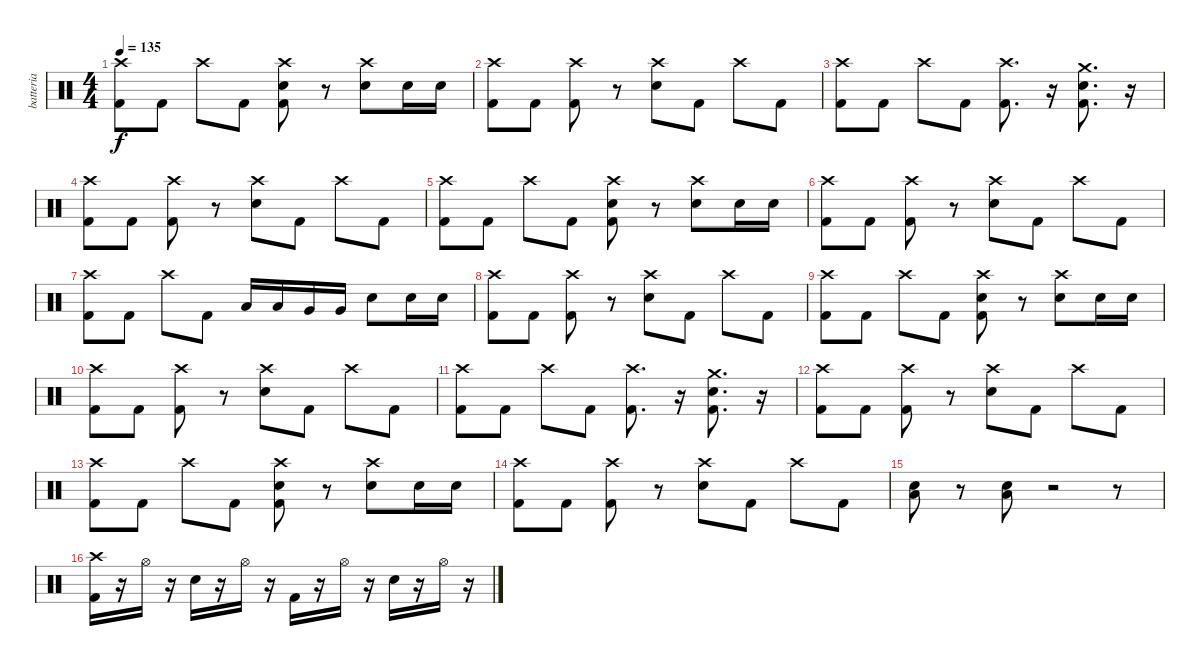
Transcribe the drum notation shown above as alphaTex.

\track ("batteria" "batteria") {instrument percussion}
\staff {score}
\articulation defaults
\ts (4 4)
\tempo 135
\clef neutral
\ks c
("Crash high (hit)" "Kick (hit) 2").8{dy f} "Kick (hit) 2".8 "Crash high (hit)".8 "Kick (hit) 2".8 ("Crash high (hit)" "Electric Snare (hit)" "Kick (hit) 2").8 r.8 ("Crash high (hit)" "Electric Snare (hit)").8 "Electric Snare (hit)".16 "Electric Snare (hit)".16 |
("Crash high (hit)" "Kick (hit) 2").8 "Kick (hit) 2".8 ("Crash high (hit)" "Kick (hit) 2").8 r.8 ("Crash high (hit)" "Electric Snare (hit)").8 "Kick (hit) 2".8 "Crash high (hit)".8 "Kick (hit) 2".8 |
("Crash high (hit)" "Kick (hit) 2").8 "Kick (hit) 2".8 "Crash high (hit)".8 "Kick (hit) 2".8 ("Crash high (hit)" "Kick (hit) 2").8{d} r.16 ("Crash medium (hit)" "Electric Snare (hit)" "Kick (hit) 2").8{d} r.16 |
("Crash high (hit)" "Kick (hit) 2").8 "Kick (hit) 2".8 ("Crash high (hit)" "Kick (hit) 2").8 r.8 ("Crash high (hit)" "Electric Snare (hit)").8 "Kick (hit) 2".8 "Crash high (hit)".8 "Kick (hit) 2".8 |
("Crash high (hit)" "Kick (hit) 2").8 "Kick (hit) 2".8 "Crash high (hit)".8 "Kick (hit) 2".8 ("Crash high (hit)" "Electric Snare (hit)" "Kick (hit) 2").8 r.8 ("Crash high (hit)" "Electric Snare (hit)").8 "Electric Snare (hit)".16 "Electric Snare (hit)".16 |
("Crash high (hit)" "Kick (hit) 2").8 "Kick (hit) 2".8 ("Crash high (hit)" "Kick (hit) 2").8 r.8 ("Crash high (hit)" "Electric Snare (hit)").8 "Kick (hit) 2".8 "Crash high (hit)".8 "Kick (hit) 2".8 |
("Crash high (hit)" "Kick (hit) 2").8 "Kick (hit) 2".8 "Crash high (hit)".8 "Kick (hit) 2".8 "Low Tom (hit)".16 "Low Tom (hit)".16 "Very Low Tom (hit)".16 "Very Low Tom (hit)".16 "Electric Snare (hit)".8 "Electric Snare (hit)".16 "Electric Snare (hit)".16 |
("Crash high (hit)" "Kick (hit) 2").8 "Kick (hit) 2".8 ("Crash high (hit)" "Kick (hit) 2").8 r.8 ("Crash high (hit)" "Electric Snare (hit)").8 "Kick (hit) 2".8 "Crash high (hit)".8 "Kick (hit) 2".8 |
("Crash high (hit)" "Kick (hit) 2").8 "Kick (hit) 2".8 "Crash high (hit)".8 "Kick (hit) 2".8 ("Crash high (hit)" "Electric Snare (hit)" "Kick (hit) 2").8 r.8 ("Crash high (hit)" "Electric Snare (hit)").8 "Electric Snare (hit)".16 "Electric Snare (hit)".16 |
("Crash high (hit)" "Kick (hit) 2").8 "Kick (hit) 2".8 ("Crash high (hit)" "Kick (hit) 2").8 r.8 ("Crash high (hit)" "Electric Snare (hit)").8 "Kick (hit) 2".8 "Crash high (hit)".8 "Kick (hit) 2".8 |
("Crash high (hit)" "Kick (hit) 2").8 "Kick (hit) 2".8 "Crash high (hit)".8 "Kick (hit) 2".8 ("Crash high (hit)" "Kick (hit) 2").8{d} r.16 ("Crash medium (hit)" "Electric Snare (hit)" "Kick (hit) 2").8{d} r.16 |
("Crash high (hit)" "Kick (hit) 2").8 "Kick (hit) 2".8 ("Crash high (hit)" "Kick (hit) 2").8 r.8 ("Crash high (hit)" "Electric Snare (hit)").8 "Kick (hit) 2".8 "Crash high (hit)".8 "Kick (hit) 2".8 |
("Crash high (hit)" "Kick (hit) 2").8 "Kick (hit) 2".8 "Crash high (hit)".8 "Kick (hit) 2".8 ("Crash high (hit)" "Electric Snare (hit)" "Kick (hit) 2").8 r.8 ("Crash high (hit)" "Electric Snare (hit)").8 "Electric Snare (hit)".16 "Electric Snare (hit)".16 |
("Crash high (hit)" "Kick (hit) 2").8 "Kick (hit) 2".8 ("Crash high (hit)" "Kick (hit) 2").8 r.8 ("Crash high (hit)" "Electric Snare (hit)").8 "Kick (hit) 2".8 "Crash high (hit)".8 "Kick (hit) 2".8 |
("Low Floor Tom (hit)" "Electric Snare (hit)").8 r.8 ("Low Floor Tom (hit)" "Electric Snare (hit)").8 r.2 r.8 |
("Crash high (hit)" "Kick (hit) 2").16 r.16 "Hi-Hat (open)".16 r.16 "Electric Snare (hit)".16 r.16 "Hi-Hat (open)".16 r.16 "Kick (hit) 2".16 r.16 "Hi-Hat (open)".16 r.16 "Electric Snare (hit)".16 r.16 "Hi-Hat (open)".16 r.16
